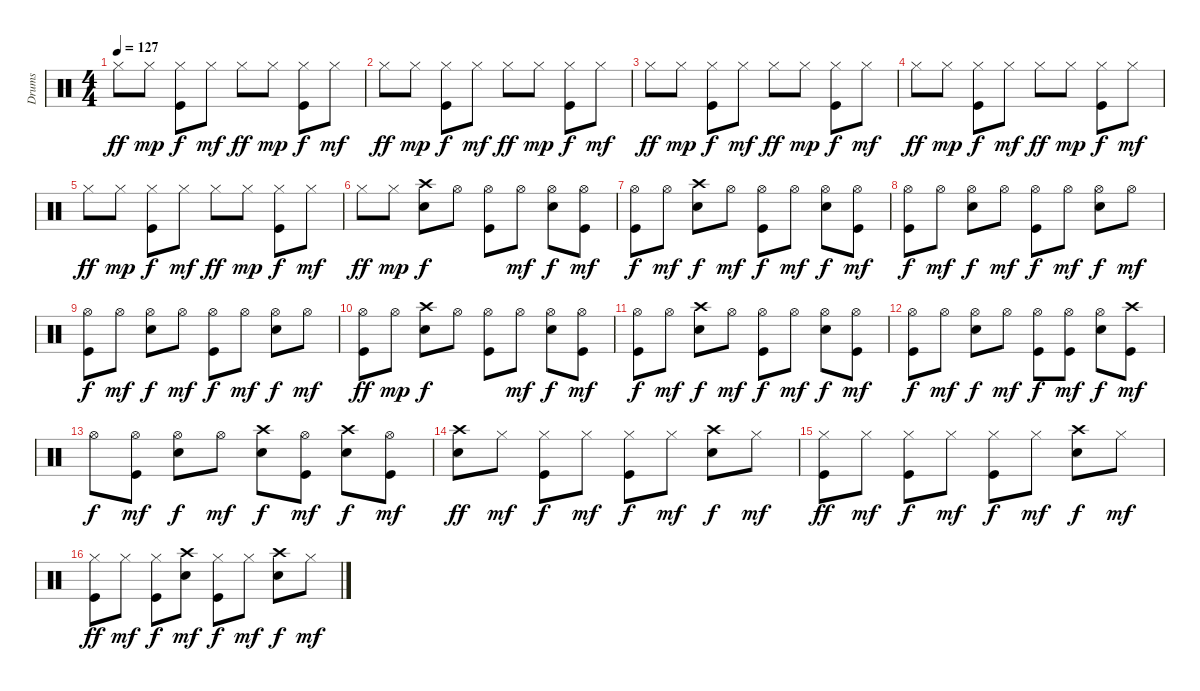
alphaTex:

\track ("Drums" "Drums") {instrument percussion}
\staff {score}
\articulation defaults
\ts (4 4)
\tempo 127
\clef neutral
\ks c "Hi-Hat (closed)".8{dy ff} "Hi-Hat (closed)".8{dy mp}
("Hi-Hat (closed)" "Kick (hit)").8{dy f} "Hi-Hat (closed)".8{dy mf} "Hi-Hat (closed)".8{dy ff} "Hi-Hat (closed)".8{dy mp} ("Hi-Hat (closed)" "Kick (hit)").8{dy f} "Hi-Hat (closed)".8{dy mf} |
"Hi-Hat (closed)".8{dy ff} "Hi-Hat (closed)".8{dy mp} ("Hi-Hat (closed)" "Kick (hit)").8{dy f} "Hi-Hat (closed)".8{dy mf} "Hi-Hat (closed)".8{dy ff} "Hi-Hat (closed)".8{dy mp} ("Hi-Hat (closed)" "Kick (hit)").8{dy f} "Hi-Hat (closed)".8{dy mf} |
"Hi-Hat (closed)".8{dy ff} "Hi-Hat (closed)".8{dy mp} ("Hi-Hat (closed)" "Kick (hit)").8{dy f} "Hi-Hat (closed)".8{dy mf} "Hi-Hat (closed)".8{dy ff} "Hi-Hat (closed)".8{dy mp} ("Hi-Hat (closed)" "Kick (hit)").8{dy f} "Hi-Hat (closed)".8{dy mf} |
"Hi-Hat (closed)".8{dy ff} "Hi-Hat (closed)".8{dy mp} ("Hi-Hat (closed)" "Kick (hit)").8{dy f} "Hi-Hat (closed)".8{dy mf} "Hi-Hat (closed)".8{dy ff} "Hi-Hat (closed)".8{dy mp} ("Hi-Hat (closed)" "Kick (hit)").8{dy f} "Hi-Hat (closed)".8{dy mf} |
"Hi-Hat (closed)".8{dy ff} "Hi-Hat (closed)".8{dy mp} ("Hi-Hat (closed)" "Kick (hit)").8{dy f} "Hi-Hat (closed)".8{dy mf} "Hi-Hat (closed)".8{dy ff} "Hi-Hat (closed)".8{dy mp} ("Hi-Hat (closed)" "Kick (hit)").8{dy f} "Hi-Hat (closed)".8{dy mf} |
"Hi-Hat (closed)".8{dy ff} "Hi-Hat (closed)".8{dy mp} ("Crash high (hit)" "Snare (hit) 2").8{dy f} "Hi-Hat (open)".8 ("Hi-Hat (open)" "Kick (hit)").8 "Hi-Hat (open)".8{dy mf} ("Hi-Hat (open)" "Snare (hit) 2").8{dy f} ("Hi-Hat (open)" "Kick (hit)").8{dy mf} |
("Hi-Hat (open)" "Kick (hit)").8{dy f} "Hi-Hat (open)".8{dy mf} ("Crash high (hit)" "Snare (hit) 2").8{dy f} "Hi-Hat (open)".8{dy mf} ("Hi-Hat (open)" "Kick (hit)").8{dy f} "Hi-Hat (open)".8{dy mf} ("Hi-Hat (open)" "Snare (hit) 2").8{dy f} ("Hi-Hat (open)" "Kick (hit)").8{dy mf} |
("Hi-Hat (open)" "Kick (hit)").8{dy f} "Hi-Hat (open)".8{dy mf} ("Hi-Hat (open)" "Snare (hit) 2").8{dy f} "Hi-Hat (open)".8{dy mf} ("Hi-Hat (open)" "Kick (hit)").8{dy f} "Hi-Hat (open)".8{dy mf} ("Hi-Hat (open)" "Snare (hit) 2").8{dy f} "Hi-Hat (open)".8{dy mf} |
("Hi-Hat (open)" "Kick (hit)").8{dy f} "Hi-Hat (open)".8{dy mf} ("Hi-Hat (open)" "Snare (hit) 2").8{dy f} "Hi-Hat (open)".8{dy mf} ("Hi-Hat (open)" "Kick (hit)").8{dy f} "Hi-Hat (open)".8{dy mf} ("Hi-Hat (open)" "Snare (hit) 2").8{dy f} "Hi-Hat (open)".8{dy mf} |
("Hi-Hat (open)" "Kick (hit)").8{dy ff} "Hi-Hat (open)".8{dy mp} ("Crash high (hit)" "Snare (hit) 2").8{dy f} "Hi-Hat (open)".8 ("Hi-Hat (open)" "Kick (hit)").8 "Hi-Hat (open)".8{dy mf} ("Hi-Hat (open)" "Snare (hit) 2").8{dy f} ("Hi-Hat (open)" "Kick (hit)").8{dy mf} |
("Hi-Hat (open)" "Kick (hit)").8{dy f} "Hi-Hat (open)".8{dy mf} ("Crash high (hit)" "Snare (hit) 2").8{dy f} "Hi-Hat (open)".8{dy mf} ("Hi-Hat (open)" "Kick (hit)").8{dy f} "Hi-Hat (open)".8{dy mf} ("Hi-Hat (open)" "Snare (hit) 2").8{dy f} ("Hi-Hat (open)" "Kick (hit)").8{dy mf} |
("Hi-Hat (open)" "Kick (hit)").8{dy f} "Hi-Hat (open)".8{dy mf} ("Hi-Hat (open)" "Snare (hit) 2").8{dy f} "Hi-Hat (open)".8{dy mf} ("Hi-Hat (open)" "Kick (hit)").8{dy f} ("Hi-Hat (open)" "Kick (hit)").8{dy mf} ("Hi-Hat (open)" "Snare (hit) 2").8{dy f} ("Crash high (hit)" "Kick (hit)").8{dy mf} |
"Hi-Hat (open)".8{dy f} ("Hi-Hat (open)" "Kick (hit)").8{dy mf} ("Hi-Hat (open)" "Snare (hit) 2").8{dy f} "Hi-Hat (open)".8{dy mf} ("Crash high (hit)" "Snare (hit) 2").8{dy f} ("Hi-Hat (open)" "Kick (hit)").8{dy mf} ("Crash high (hit)" "Snare (hit) 2").8{dy f} ("Hi-Hat (open)" "Kick (hit)").8{dy mf} |
("Crash high (hit)" "Snare (hit) 2").8{dy ff} "Hi-Hat (closed)".8{dy mf} ("Hi-Hat (closed)" "Kick (hit)").8{dy f} "Hi-Hat (closed)".8{dy mf} ("Hi-Hat (closed)" "Kick (hit)").8{dy f} "Hi-Hat (closed)".8{dy mf} ("Crash high (hit)" "Snare (hit) 2").8{dy f} "Hi-Hat (closed)".8{dy mf} |
("Hi-Hat (closed)" "Kick (hit)").8{dy ff} "Hi-Hat (closed)".8{dy mf} ("Hi-Hat (closed)" "Kick (hit)").8{dy f} "Hi-Hat (closed)".8{dy mf} ("Hi-Hat (closed)" "Kick (hit)").8{dy f} "Hi-Hat (closed)".8{dy mf} ("Crash high (hit)" "Snare (hit) 2").8{dy f} "Hi-Hat (closed)".8{dy mf} |
("Hi-Hat (closed)" "Kick (hit)").8{dy ff} "Hi-Hat (closed)".8{dy mf} ("Hi-Hat (closed)" "Kick (hit)").8{dy f} ("Crash high (hit)" "Snare (hit) 2").8{dy mf} ("Hi-Hat (closed)" "Kick (hit)").8{dy f} "Hi-Hat (closed)".8{dy mf} ("Crash high (hit)" "Snare (hit) 2").8{dy f} "Hi-Hat (closed)".8{dy mf}
